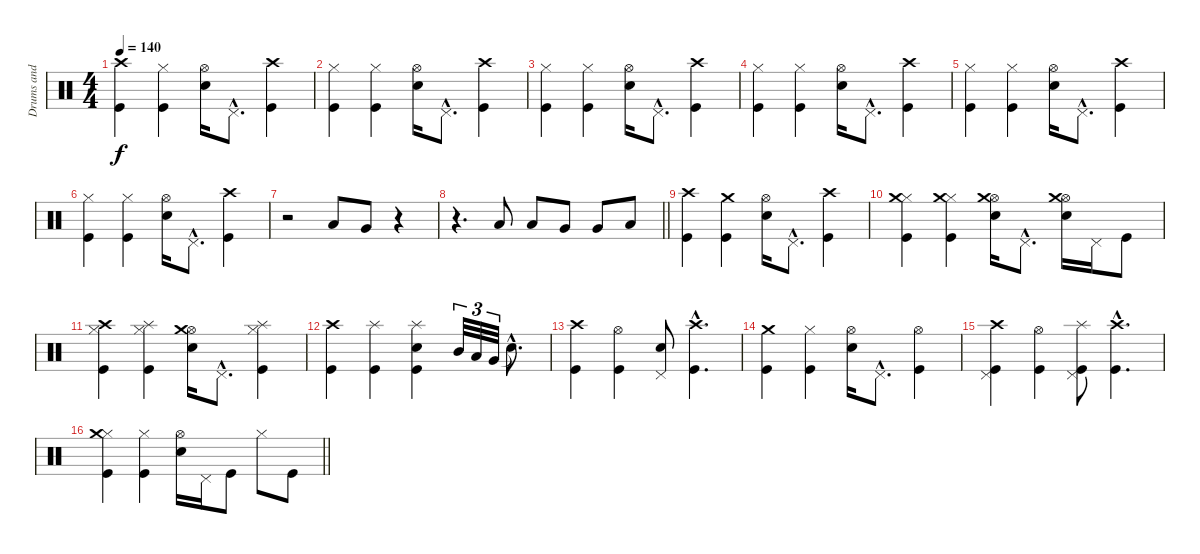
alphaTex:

\track ("Drums and percussion" "Drums and ") {instrument percussion}
\staff {score}
\articulation defaults
\ts (4 4)
\tempo 140
\clef neutral
\ks c
("Crash high (hit)" "Kick (hit)").4{dy f} ("Hi-Hat (closed)" "Kick (hit)").4 ("Hi-Hat (open)" "Electric Snare (hit)").16 "Pedal Hi-Hat (hit)"{hac}.8{d} ("Crash high (hit)" "Kick (hit)").4 |
("Hi-Hat (closed)" "Kick (hit)").4 ("Hi-Hat (closed)" "Kick (hit)").4 ("Hi-Hat (open)" "Electric Snare (hit)").16 "Pedal Hi-Hat (hit)"{hac}.8{d} ("Crash high (hit)" "Kick (hit)").4 |
("Hi-Hat (closed)" "Kick (hit)").4 ("Hi-Hat (closed)" "Kick (hit)").4 ("Hi-Hat (open)" "Electric Snare (hit)").16 "Pedal Hi-Hat (hit)"{hac}.8{d} ("Crash high (hit)" "Kick (hit)").4 |
("Hi-Hat (closed)" "Kick (hit)").4 ("Hi-Hat (closed)" "Kick (hit)").4 ("Hi-Hat (open)" "Electric Snare (hit)").16 "Pedal Hi-Hat (hit)"{hac}.8{d} ("Crash high (hit)" "Kick (hit)").4 |
("Hi-Hat (closed)" "Kick (hit)").4 ("Hi-Hat (closed)" "Kick (hit)").4 ("Hi-Hat (open)" "Electric Snare (hit)").16 "Pedal Hi-Hat (hit)"{hac}.8{d} ("Crash high (hit)" "Kick (hit)").4 |
("Hi-Hat (closed)" "Kick (hit)").4 ("Hi-Hat (closed)" "Kick (hit)").4 ("Hi-Hat (open)" "Electric Snare (hit)").16 "Pedal Hi-Hat (hit)"{hac}.8{d} ("Crash high (hit)" "Kick (hit)").4 |
r.2 "Low Tom (hit)".8 "Very Low Tom (hit)".8 r.4 |
\barLineRight lightlight
r.4{d} "Low Tom (hit)".8 "Low Tom (hit)".8 "Very Low Tom (hit)".8 "Very Low Tom (hit)".8 "Low Floor Tom (hit)".8 |
("Crash high (hit)" "Kick (hit)").4 ("Crash medium (hit)" "Kick (hit)").4 ("Hi-Hat (open)" "Electric Snare (hit)").16 "Pedal Hi-Hat (hit)"{hac}.8{d} ("Crash high (hit)" "Kick (hit)").4 |
("Hi-Hat (closed)" "Crash medium (hit)" "Kick (hit)").4 ("Hi-Hat (closed)" "Crash medium (hit)" "Kick (hit)").4 ("Hi-Hat (open)" "Crash medium (hit)" "Electric Snare (hit)").16 "Pedal Hi-Hat (hit)"{hac}.8{d} ("Hi-Hat (open)" "Crash medium (hit)" "Electric Snare (hit)").16 "Pedal Hi-Hat (hit)".16 "Kick (hit)".8 |
("Hi-Hat (closed)" "Crash high (hit)" "Kick (hit)").4 ("Hi-Hat (closed)" "Splash (hit)" "Kick (hit)").4 ("Hi-Hat (open)" "Crash medium (hit)" "Electric Snare (hit)").16 "Pedal Hi-Hat (hit)"{hac}.8{d} ("Hi-Hat (closed)" "Splash (hit)" "Kick (hit)").4 |
("Crash high (hit)" "Kick (hit)").4 ("Splash (hit)" "Kick (hit)").4 ("Splash (hit)" "Electric Snare (hit)" "Kick (hit)").4 "Mid Tom (hit)".32{tu (3 2)} "Low Tom (hit)".32{tu (3 2)} "Very Low Tom (hit)".32{tu (3 2)} "Snare (hit)"{hac t}.8{d} |
("Crash high (hit)" "Kick (hit)").4 ("Hi-Hat (open)" "Kick (hit)").4 ("Pedal Hi-Hat (hit)" "Electric Snare (hit)").8 ("Crash high (hit)"{hac} "Kick (hit)"{hac}).4{d} |
("Crash medium (hit)" "Kick (hit)").4 ("Hi-Hat (closed)" "Kick (hit)").4 ("Hi-Hat (open)" "Electric Snare (hit)").16 "Pedal Hi-Hat (hit)"{hac}.8{d} ("Hi-Hat (open)" "Kick (hit)").4 |
("Pedal Hi-Hat (hit)" "Crash high (hit)" "Kick (hit)").4 ("Hi-Hat (open)" "Kick (hit)").4 ("Pedal Hi-Hat (hit)" "Splash (hit)" "Kick (hit)").8 ("Crash high (hit)"{hac} "Kick (hit)"{hac}).4{d} |
\barLineRight lightlight
("Hi-Hat (closed)" "Crash medium (hit)" "Kick (hit)").4 ("Hi-Hat (closed)" "Kick (hit)").4 ("Hi-Hat (open)" "Electric Snare (hit)").16 "Pedal Hi-Hat (hit)".16 "Kick (hit)".8 "Hi-Hat (closed)".8 "Kick (hit)".8
